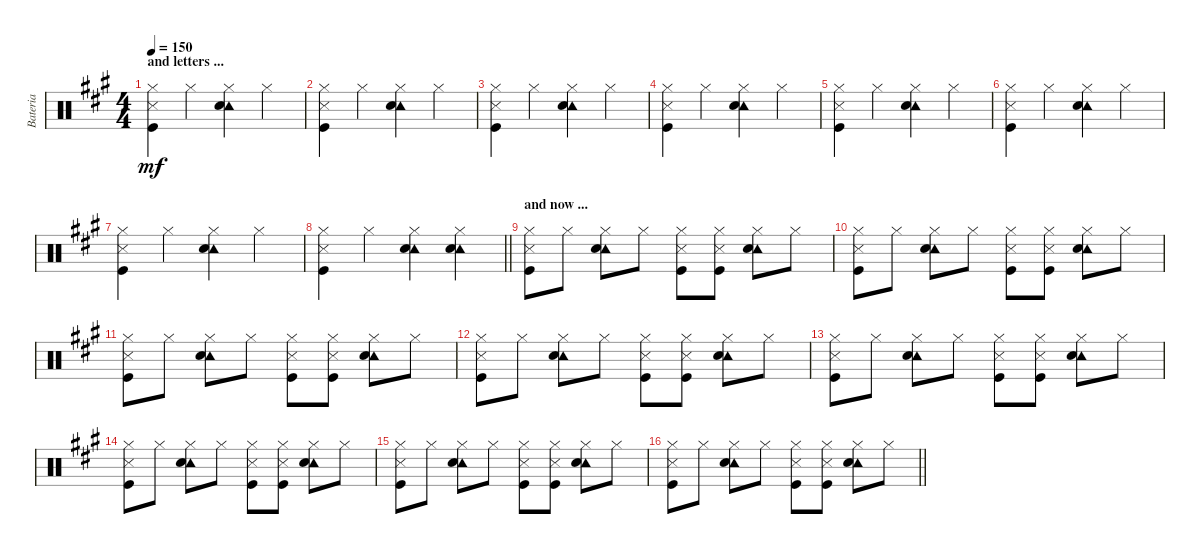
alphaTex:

\track ("Bateria" "Bateria") {instrument percussion}
\staff {score}
\articulation defaults
\ts (4 4)
\section ("" "and letters ...")
\tempo 150
\clef neutral
\ks a
("Hi-Hat (closed)" "Metronome (hit)" "Kick (hit)").4{dy mf} "Hi-Hat (closed)".4 ("Tambourine (hit)" "Hi-Hat (closed)" "Electric Snare (hit)").4 "Hi-Hat (closed)".4 |
("Hi-Hat (closed)" "Metronome (hit)" "Kick (hit)").4 "Hi-Hat (closed)".4 ("Tambourine (hit)" "Hi-Hat (closed)" "Electric Snare (hit)").4 "Hi-Hat (closed)".4 |
("Hi-Hat (closed)" "Metronome (hit)" "Kick (hit)").4 "Hi-Hat (closed)".4 ("Tambourine (hit)" "Hi-Hat (closed)" "Electric Snare (hit)").4 "Hi-Hat (closed)".4 |
("Hi-Hat (closed)" "Metronome (hit)" "Kick (hit)").4 "Hi-Hat (closed)".4 ("Tambourine (hit)" "Hi-Hat (closed)" "Electric Snare (hit)").4 "Hi-Hat (closed)".4 |
("Hi-Hat (closed)" "Metronome (hit)" "Kick (hit)").4 "Hi-Hat (closed)".4 ("Tambourine (hit)" "Hi-Hat (closed)" "Electric Snare (hit)").4 "Hi-Hat (closed)".4 |
("Hi-Hat (closed)" "Metronome (hit)" "Kick (hit)").4 "Hi-Hat (closed)".4 ("Tambourine (hit)" "Hi-Hat (closed)" "Electric Snare (hit)").4 "Hi-Hat (closed)".4 |
("Hi-Hat (closed)" "Metronome (hit)" "Kick (hit)").4 "Hi-Hat (closed)".4 ("Tambourine (hit)" "Hi-Hat (closed)" "Electric Snare (hit)").4 "Hi-Hat (closed)".4 |
\barLineRight lightlight
("Hi-Hat (closed)" "Metronome (hit)" "Kick (hit)").4 "Hi-Hat (closed)".4 ("Tambourine (hit)" "Hi-Hat (closed)" "Electric Snare (hit)").4 ("Tambourine (hit)" "Hi-Hat (closed)" "Electric Snare (hit)").4 |
\section ("" "and now ...")
("Hi-Hat (closed)" "Metronome (hit)" "Kick (hit)").8 "Hi-Hat (closed)".8 ("Tambourine (hit)" "Hi-Hat (closed)" "Electric Snare (hit)").8 "Hi-Hat (closed)".8 ("Hi-Hat (closed)" "Metronome (hit)" "Kick (hit)").8 ("Hi-Hat (closed)" "Metronome (hit)" "Kick (hit)").8 ("Tambourine (hit)" "Hi-Hat (closed)" "Electric Snare (hit)").8 "Hi-Hat (closed)".8 |
("Hi-Hat (closed)" "Metronome (hit)" "Kick (hit)").8 "Hi-Hat (closed)".8 ("Tambourine (hit)" "Hi-Hat (closed)" "Electric Snare (hit)").8 "Hi-Hat (closed)".8 ("Hi-Hat (closed)" "Metronome (hit)" "Kick (hit)").8 ("Hi-Hat (closed)" "Metronome (hit)" "Kick (hit)").8 ("Tambourine (hit)" "Hi-Hat (closed)" "Electric Snare (hit)").8 "Hi-Hat (closed)".8 |
("Hi-Hat (closed)" "Metronome (hit)" "Kick (hit)").8 "Hi-Hat (closed)".8 ("Tambourine (hit)" "Hi-Hat (closed)" "Electric Snare (hit)").8 "Hi-Hat (closed)".8 ("Hi-Hat (closed)" "Metronome (hit)" "Kick (hit)").8 ("Hi-Hat (closed)" "Metronome (hit)" "Kick (hit)").8 ("Tambourine (hit)" "Hi-Hat (closed)" "Electric Snare (hit)").8 "Hi-Hat (closed)".8 |
("Hi-Hat (closed)" "Metronome (hit)" "Kick (hit)").8 "Hi-Hat (closed)".8 ("Tambourine (hit)" "Hi-Hat (closed)" "Electric Snare (hit)").8 "Hi-Hat (closed)".8 ("Hi-Hat (closed)" "Metronome (hit)" "Kick (hit)").8 ("Hi-Hat (closed)" "Metronome (hit)" "Kick (hit)").8 ("Tambourine (hit)" "Hi-Hat (closed)" "Electric Snare (hit)").8 "Hi-Hat (closed)".8 |
("Hi-Hat (closed)" "Metronome (hit)" "Kick (hit)").8 "Hi-Hat (closed)".8 ("Tambourine (hit)" "Hi-Hat (closed)" "Electric Snare (hit)").8 "Hi-Hat (closed)".8 ("Hi-Hat (closed)" "Metronome (hit)" "Kick (hit)").8 ("Hi-Hat (closed)" "Metronome (hit)" "Kick (hit)").8 ("Tambourine (hit)" "Hi-Hat (closed)" "Electric Snare (hit)").8 "Hi-Hat (closed)".8 |
("Hi-Hat (closed)" "Metronome (hit)" "Kick (hit)").8 "Hi-Hat (closed)".8 ("Tambourine (hit)" "Hi-Hat (closed)" "Electric Snare (hit)").8 "Hi-Hat (closed)".8 ("Hi-Hat (closed)" "Metronome (hit)" "Kick (hit)").8 ("Hi-Hat (closed)" "Metronome (hit)" "Kick (hit)").8 ("Tambourine (hit)" "Hi-Hat (closed)" "Electric Snare (hit)").8 "Hi-Hat (closed)".8 |
("Hi-Hat (closed)" "Metronome (hit)" "Kick (hit)").8 "Hi-Hat (closed)".8 ("Tambourine (hit)" "Hi-Hat (closed)" "Electric Snare (hit)").8 "Hi-Hat (closed)".8 ("Hi-Hat (closed)" "Metronome (hit)" "Kick (hit)").8 ("Hi-Hat (closed)" "Metronome (hit)" "Kick (hit)").8 ("Tambourine (hit)" "Hi-Hat (closed)" "Electric Snare (hit)").8 "Hi-Hat (closed)".8 |
\barLineRight lightlight
("Hi-Hat (closed)" "Metronome (hit)" "Kick (hit)").8 "Hi-Hat (closed)".8 ("Tambourine (hit)" "Hi-Hat (closed)" "Electric Snare (hit)").8 "Hi-Hat (closed)".8 ("Hi-Hat (closed)" "Metronome (hit)" "Kick (hit)").8 ("Hi-Hat (closed)" "Metronome (hit)" "Kick (hit)").8 ("Tambourine (hit)" "Hi-Hat (closed)" "Electric Snare (hit)").8 "Hi-Hat (closed)".8
